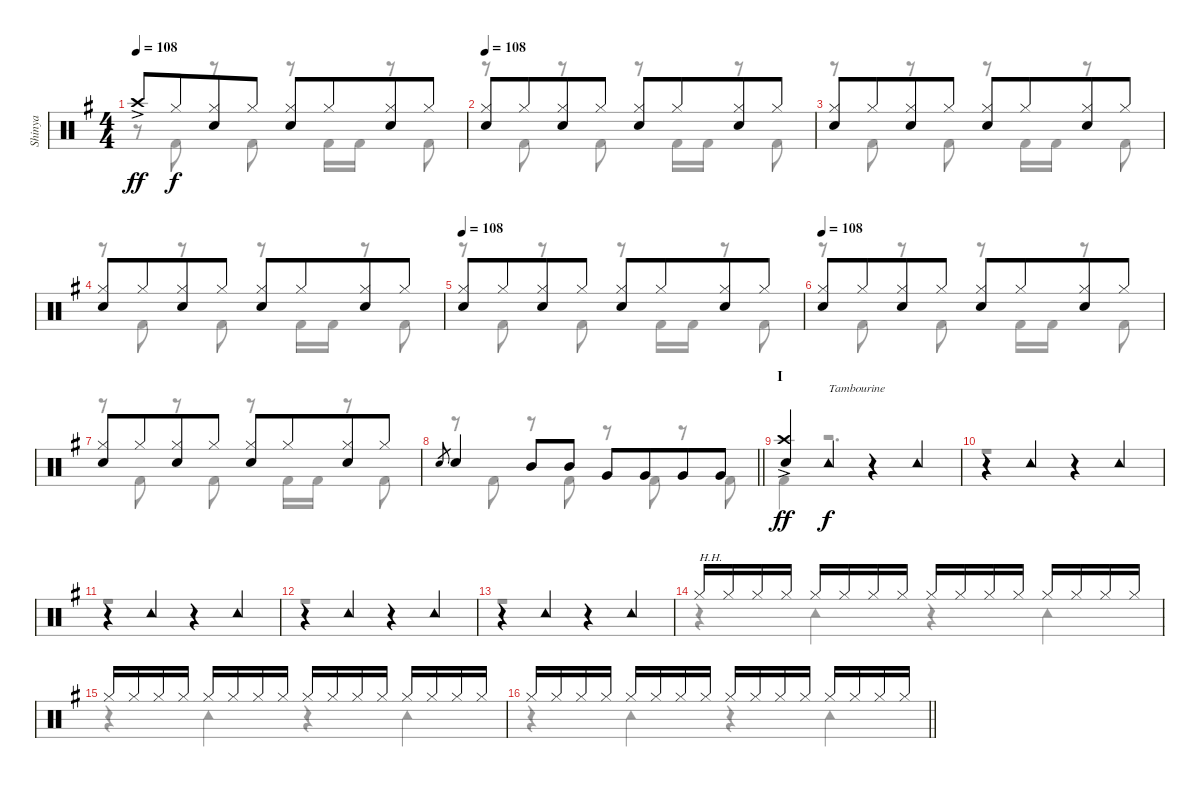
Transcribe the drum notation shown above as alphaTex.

\track ("Shinya" "Shinya") {instrument percussion}
\staff {score}
\articulation defaults
\voice
\ts (4 4)
\tempo 108
\clef neutral
\ks eminor "Crash high (hit)"{ac}.8{dy ff} "Hi-Hat (closed)".8{dy f beam merge}
("Hi-Hat (closed)" "Snare (hit) 2").8 "Hi-Hat (closed)".8 ("Hi-Hat (closed)" "Snare (hit) 2").8 "Hi-Hat (closed)".8{beam merge} ("Hi-Hat (closed)" "Snare (hit) 2").8 "Hi-Hat (closed)".8 |
\tempo 108
("Hi-Hat (closed)" "Snare (hit) 2").8 "Hi-Hat (closed)".8{beam merge} ("Hi-Hat (closed)" "Snare (hit) 2").8 "Hi-Hat (closed)".8 ("Hi-Hat (closed)" "Snare (hit) 2").8 "Hi-Hat (closed)".8{beam merge} ("Hi-Hat (closed)" "Snare (hit) 2").8 "Hi-Hat (closed)".8 |
("Hi-Hat (closed)" "Snare (hit) 2").8 "Hi-Hat (closed)".8{beam merge} ("Hi-Hat (closed)" "Snare (hit) 2").8 "Hi-Hat (closed)".8 ("Hi-Hat (closed)" "Snare (hit) 2").8 "Hi-Hat (closed)".8{beam merge} ("Hi-Hat (closed)" "Snare (hit) 2").8 "Hi-Hat (closed)".8 |
("Hi-Hat (closed)" "Snare (hit) 2").8 "Hi-Hat (closed)".8{beam merge} ("Hi-Hat (closed)" "Snare (hit) 2").8 "Hi-Hat (closed)".8 ("Hi-Hat (closed)" "Snare (hit) 2").8 "Hi-Hat (closed)".8{beam merge} ("Hi-Hat (closed)" "Snare (hit) 2").8 "Hi-Hat (closed)".8 |
\tempo 108
("Hi-Hat (closed)" "Snare (hit) 2").8 "Hi-Hat (closed)".8{beam merge} ("Hi-Hat (closed)" "Snare (hit) 2").8 "Hi-Hat (closed)".8 ("Hi-Hat (closed)" "Snare (hit) 2").8 "Hi-Hat (closed)".8{beam merge} ("Hi-Hat (closed)" "Snare (hit) 2").8 "Hi-Hat (closed)".8 |
\tempo 108
("Hi-Hat (closed)" "Snare (hit) 2").8 "Hi-Hat (closed)".8{beam merge} ("Hi-Hat (closed)" "Snare (hit) 2").8 "Hi-Hat (closed)".8 ("Hi-Hat (closed)" "Snare (hit) 2").8 "Hi-Hat (closed)".8{beam merge} ("Hi-Hat (closed)" "Snare (hit) 2").8 "Hi-Hat (closed)".8 |
("Hi-Hat (closed)" "Snare (hit) 2").8 "Hi-Hat (closed)".8{beam merge} ("Hi-Hat (closed)" "Snare (hit) 2").8 "Hi-Hat (closed)".8 ("Hi-Hat (closed)" "Snare (hit) 2").8 "Hi-Hat (closed)".8{beam merge} ("Hi-Hat (closed)" "Snare (hit) 2").8 "Hi-Hat (closed)".8 |
\barLineRight lightlight "Snare (hit) 2".8{gr} "Snare (hit) 2".4 "Mid Tom (hit)".8 "Mid Tom (hit)".8 "Very Low Tom (hit)".8 "Very Low Tom (hit)".8{beam merge} "Very Low Tom (hit)".8 "Very Low Tom (hit)".8
|
\section ("" "I")
("Crash high (hit)"{ac} "Snare (hit) 2").4{dy ff} "Tambourine (hit)".4{txt "Tambourine" dy f} r.4 "Tambourine (hit)".4 |
r.4 "Tambourine (hit)".4 r.4 "Tambourine (hit)".4 |
r.4 "Tambourine (hit)".4 r.4 "Tambourine (hit)".4 |
r.4 "Tambourine (hit)".4 r.4 "Tambourine (hit)".4 |
r.4 "Tambourine (hit)".4 r.4 "Tambourine (hit)".4 |
"Hi-Hat (closed)".16{txt "H.H."} "Hi-Hat (closed)".16 "Hi-Hat (closed)".16 "Hi-Hat (closed)".16 "Hi-Hat (closed)".16 "Hi-Hat (closed)".16 "Hi-Hat (closed)".16 "Hi-Hat (closed)".16 "Hi-Hat (closed)".16 "Hi-Hat (closed)".16 "Hi-Hat (closed)".16 "Hi-Hat (closed)".16 "Hi-Hat (closed)".16 "Hi-Hat (closed)".16 "Hi-Hat (closed)".16 "Hi-Hat (closed)".16 |
"Hi-Hat (closed)".16 "Hi-Hat (closed)".16 "Hi-Hat (closed)".16 "Hi-Hat (closed)".16 "Hi-Hat (closed)".16 "Hi-Hat (closed)".16 "Hi-Hat (closed)".16 "Hi-Hat (closed)".16 "Hi-Hat (closed)".16 "Hi-Hat (closed)".16 "Hi-Hat (closed)".16 "Hi-Hat (closed)".16 "Hi-Hat (closed)".16 "Hi-Hat (closed)".16 "Hi-Hat (closed)".16 "Hi-Hat (closed)".16 |
\barLineRight lightlight "Hi-Hat (closed)".16 "Hi-Hat (closed)".16 "Hi-Hat (closed)".16 "Hi-Hat (closed)".16 "Hi-Hat (closed)".16 "Hi-Hat (closed)".16 "Hi-Hat (closed)".16 "Hi-Hat (closed)".16 "Hi-Hat (closed)".16 "Hi-Hat (closed)".16 "Hi-Hat (closed)".16 "Hi-Hat (closed)".16 "Hi-Hat (closed)".16 "Hi-Hat (closed)".16 "Hi-Hat (closed)".16 "Hi-Hat (closed)".16
\voice
\clef neutral
\ottava regular
\simile none
\ks eminor
r.8{dy f} "Kick (hit) 2".8 r.8 "Kick (hit) 2".8 r.8 "Kick (hit) 2".16 "Kick (hit) 2".16 r.8 "Kick (hit) 2".8 |
r.8 "Kick (hit) 2".8 r.8 "Kick (hit) 2".8 r.8 "Kick (hit) 2".16 "Kick (hit) 2".16 r.8 "Kick (hit) 2".8 |
r.8 "Kick (hit) 2".8 r.8 "Kick (hit) 2".8 r.8 "Kick (hit) 2".16 "Kick (hit) 2".16 r.8 "Kick (hit) 2".8 |
r.8 "Kick (hit) 2".8 r.8 "Kick (hit) 2".8 r.8 "Kick (hit) 2".16 "Kick (hit) 2".16 r.8 "Kick (hit) 2".8 |
r.8 "Kick (hit) 2".8 r.8 "Kick (hit) 2".8 r.8 "Kick (hit) 2".16 "Kick (hit) 2".16 r.8 "Kick (hit) 2".8 |
r.8 "Kick (hit) 2".8 r.8 "Kick (hit) 2".8 r.8 "Kick (hit) 2".16 "Kick (hit) 2".16 r.8 "Kick (hit) 2".8 |
r.8 "Kick (hit) 2".8 r.8 "Kick (hit) 2".8 r.8 "Kick (hit) 2".16 "Kick (hit) 2".16 r.8 "Kick (hit) 2".8 |
\barLineRight lightlight
r.8 "Kick (hit) 2".8 r.8 "Kick (hit) 2".8 r.8 "Kick (hit) 2".8 r.8 "Kick (hit) 2".8 |
"Kick (hit) 2".4 r.2{d} |
r.1 |
r.1 |
r.1 |
r.1 |
r.4 "Tambourine (hit)".4 r.4 "Tambourine (hit)".4 |
r.4 "Tambourine (hit)".4 r.4 "Tambourine (hit)".4 |
\barLineRight lightlight
r.4 "Tambourine (hit)".4 r.4 "Tambourine (hit)".4
